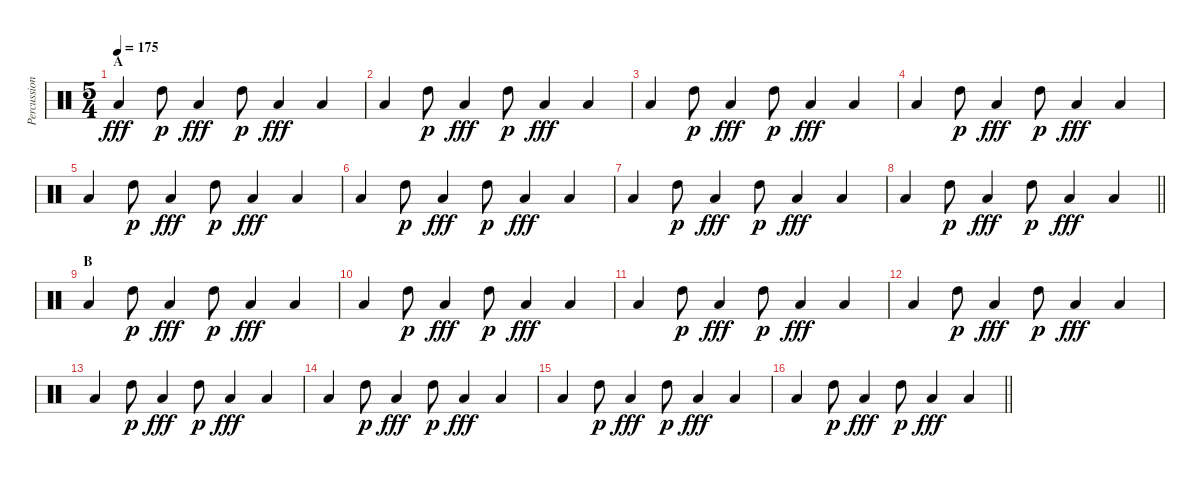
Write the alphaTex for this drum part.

\track ("Percussion" "Percussion") {instrument percussion}
\staff {score}
\articulation defaults
\ts (5 4)
\section ("" "A")
\tempo 175
\clef neutral
\ks c "Low Tom (hit)".4{dy fff} "High Tom (hit)".8{dy p} "Low Tom (hit)".4{dy fff} "High Tom (hit)".8{dy p} "Low Tom (hit)".4{dy fff} "Low Tom (hit)".4
|
"Low Tom (hit)".4 "High Tom (hit)".8{dy p} "Low Tom (hit)".4{dy fff} "High Tom (hit)".8{dy p} "Low Tom (hit)".4{dy fff} "Low Tom (hit)".4 |
"Low Tom (hit)".4 "High Tom (hit)".8{dy p} "Low Tom (hit)".4{dy fff} "High Tom (hit)".8{dy p} "Low Tom (hit)".4{dy fff} "Low Tom (hit)".4 |
"Low Tom (hit)".4 "High Tom (hit)".8{dy p} "Low Tom (hit)".4{dy fff} "High Tom (hit)".8{dy p} "Low Tom (hit)".4{dy fff} "Low Tom (hit)".4 |
"Low Tom (hit)".4 "High Tom (hit)".8{dy p} "Low Tom (hit)".4{dy fff} "High Tom (hit)".8{dy p} "Low Tom (hit)".4{dy fff} "Low Tom (hit)".4 |
"Low Tom (hit)".4 "High Tom (hit)".8{dy p} "Low Tom (hit)".4{dy fff} "High Tom (hit)".8{dy p} "Low Tom (hit)".4{dy fff} "Low Tom (hit)".4 |
"Low Tom (hit)".4 "High Tom (hit)".8{dy p} "Low Tom (hit)".4{dy fff} "High Tom (hit)".8{dy p} "Low Tom (hit)".4{dy fff} "Low Tom (hit)".4 |
\barLineRight lightlight "Low Tom (hit)".4 "High Tom (hit)".8{dy p} "Low Tom (hit)".4{dy fff} "High Tom (hit)".8{dy p} "Low Tom (hit)".4{dy fff} "Low Tom (hit)".4
|
\section ("" "B")
"Low Tom (hit)".4 "High Tom (hit)".8{dy p} "Low Tom (hit)".4{dy fff} "High Tom (hit)".8{dy p} "Low Tom (hit)".4{dy fff} "Low Tom (hit)".4 |
"Low Tom (hit)".4 "High Tom (hit)".8{dy p} "Low Tom (hit)".4{dy fff} "High Tom (hit)".8{dy p} "Low Tom (hit)".4{dy fff} "Low Tom (hit)".4 |
"Low Tom (hit)".4 "High Tom (hit)".8{dy p} "Low Tom (hit)".4{dy fff} "High Tom (hit)".8{dy p} "Low Tom (hit)".4{dy fff} "Low Tom (hit)".4 |
"Low Tom (hit)".4 "High Tom (hit)".8{dy p} "Low Tom (hit)".4{dy fff} "High Tom (hit)".8{dy p} "Low Tom (hit)".4{dy fff} "Low Tom (hit)".4 |
"Low Tom (hit)".4 "High Tom (hit)".8{dy p} "Low Tom (hit)".4{dy fff} "High Tom (hit)".8{dy p} "Low Tom (hit)".4{dy fff} "Low Tom (hit)".4 |
"Low Tom (hit)".4 "High Tom (hit)".8{dy p} "Low Tom (hit)".4{dy fff} "High Tom (hit)".8{dy p} "Low Tom (hit)".4{dy fff} "Low Tom (hit)".4 |
"Low Tom (hit)".4 "High Tom (hit)".8{dy p} "Low Tom (hit)".4{dy fff} "High Tom (hit)".8{dy p} "Low Tom (hit)".4{dy fff} "Low Tom (hit)".4 |
\barLineRight lightlight "Low Tom (hit)".4 "High Tom (hit)".8{dy p} "Low Tom (hit)".4{dy fff} "High Tom (hit)".8{dy p} "Low Tom (hit)".4{dy fff} "Low Tom (hit)".4
